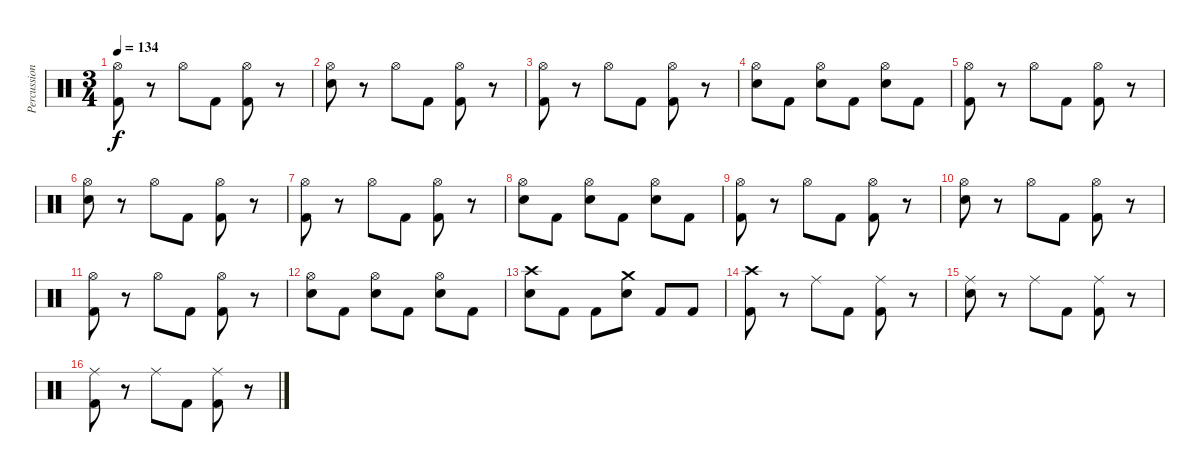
\track ("Percussion" "Percussion") {instrument percussion}
\staff {score}
\articulation defaults
\ts (3 4)
\tempo 134
\clef neutral
\ks c
("Hi-Hat (open)" "Kick (hit) 2").8{dy f} r.8 "Hi-Hat (open)".8 "Kick (hit) 2".8 ("Hi-Hat (open)" "Kick (hit) 2").8 r.8 |
("Hi-Hat (open)" "Snare (hit) 2").8 r.8 "Hi-Hat (open)".8 "Kick (hit) 2".8 ("Hi-Hat (open)" "Kick (hit) 2").8 r.8 |
("Hi-Hat (open)" "Kick (hit) 2").8 r.8 "Hi-Hat (open)".8 "Kick (hit) 2".8 ("Hi-Hat (open)" "Kick (hit) 2").8 r.8 |
("Hi-Hat (open)" "Snare (hit) 2").8 "Kick (hit) 2".8 ("Hi-Hat (open)" "Snare (hit) 2").8 "Kick (hit) 2".8 ("Hi-Hat (open)" "Snare (hit) 2").8 "Kick (hit) 2".8 |
("Hi-Hat (open)" "Kick (hit) 2").8 r.8 "Hi-Hat (open)".8 "Kick (hit) 2".8 ("Hi-Hat (open)" "Kick (hit) 2").8 r.8 |
("Hi-Hat (open)" "Snare (hit) 2").8 r.8 "Hi-Hat (open)".8 "Kick (hit) 2".8 ("Hi-Hat (open)" "Kick (hit) 2").8 r.8 |
("Hi-Hat (open)" "Kick (hit) 2").8 r.8 "Hi-Hat (open)".8 "Kick (hit) 2".8 ("Hi-Hat (open)" "Kick (hit) 2").8 r.8 |
("Hi-Hat (open)" "Snare (hit) 2").8 "Kick (hit) 2".8 ("Hi-Hat (open)" "Snare (hit) 2").8 "Kick (hit) 2".8 ("Hi-Hat (open)" "Snare (hit) 2").8 "Kick (hit) 2".8 |
("Hi-Hat (open)" "Kick (hit) 2").8 r.8 "Hi-Hat (open)".8 "Kick (hit) 2".8 ("Hi-Hat (open)" "Kick (hit) 2").8 r.8 |
("Hi-Hat (open)" "Snare (hit) 2").8 r.8 "Hi-Hat (open)".8 "Kick (hit) 2".8 ("Hi-Hat (open)" "Kick (hit) 2").8 r.8 |
("Hi-Hat (open)" "Kick (hit) 2").8 r.8 "Hi-Hat (open)".8 "Kick (hit) 2".8 ("Hi-Hat (open)" "Kick (hit) 2").8 r.8 |
("Hi-Hat (open)" "Snare (hit) 2").8 "Kick (hit) 2".8 ("Hi-Hat (open)" "Snare (hit) 2").8 "Kick (hit) 2".8 ("Hi-Hat (open)" "Snare (hit) 2").8 "Kick (hit) 2".8 |
("Crash high (hit)" "Snare (hit) 2").8 "Kick (hit) 2".8 "Kick (hit) 2".8 ("Crash medium (hit)" "Snare (hit) 2").8 "Kick (hit) 2".8 "Kick (hit) 2".8 |
("Crash high (hit)" "Kick (hit) 2").8 r.8 "Ride (middle)".8 "Kick (hit) 2".8 ("Ride (middle)" "Kick (hit) 2").8 r.8 |
("Ride (middle)" "Snare (hit) 2").8 r.8 "Ride (middle)".8 "Kick (hit) 2".8 ("Ride (middle)" "Kick (hit) 2").8 r.8 |
("Ride (middle)" "Kick (hit) 2").8 r.8 "Ride (middle)".8 "Kick (hit) 2".8 ("Ride (middle)" "Kick (hit) 2").8 r.8
